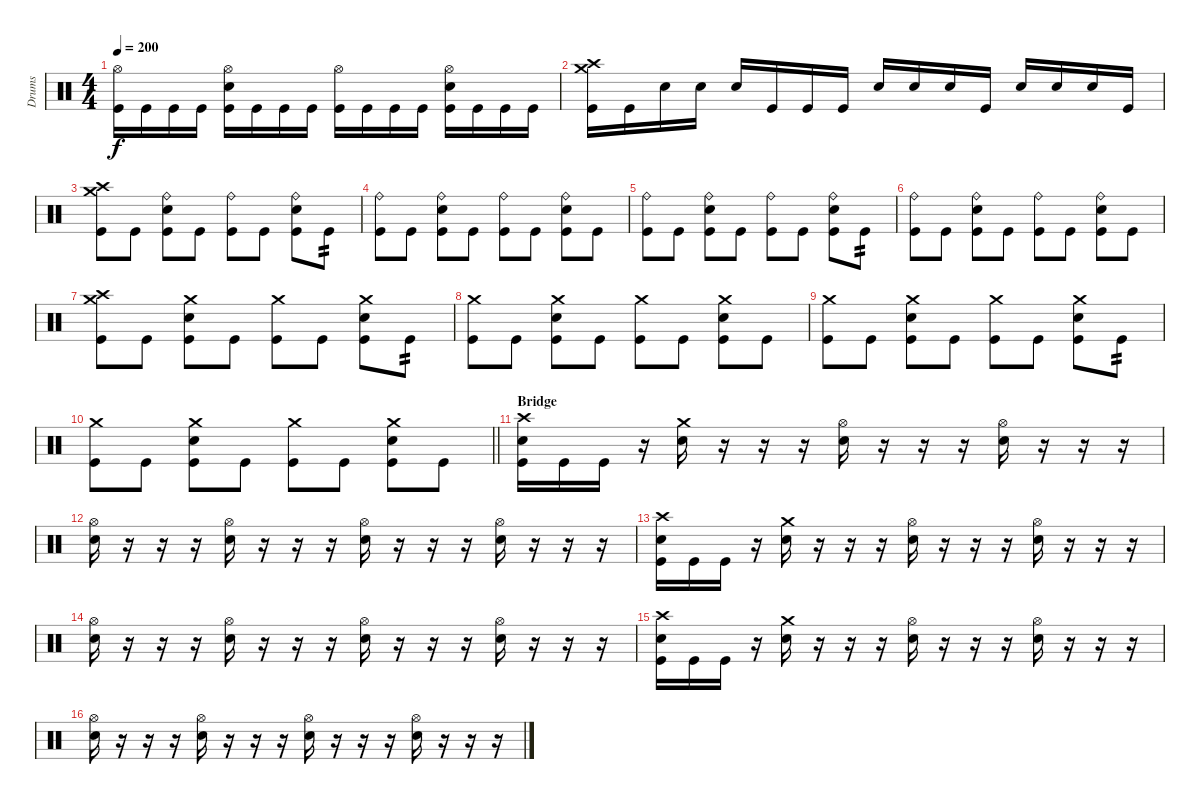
\track ("Drums" "Drums") {instrument percussion}
\staff {score}
\articulation defaults
\ts (4 4)
\tempo 200
\clef neutral
\ks c
("Hi-Hat (open)" "Kick (hit)").16{dy f} "Kick (hit)".16 "Kick (hit)".16 "Kick (hit)".16 ("Hi-Hat (open)" "Electric Snare (hit)" "Kick (hit)").16 "Kick (hit)".16 "Kick (hit)".16 "Kick (hit)".16 ("Hi-Hat (open)" "Kick (hit)").16 "Kick (hit)".16 "Kick (hit)".16 "Kick (hit)".16 ("Hi-Hat (open)" "Electric Snare (hit)" "Kick (hit)").16 "Kick (hit)".16 "Kick (hit)".16 "Kick (hit)".16 |
("Crash medium (hit)" "Crash high (hit)" "Kick (hit)").16 "Kick (hit)".16 "Electric Snare (hit)".16 "Electric Snare (hit)".16 "Electric Snare (hit)".16 "Kick (hit)".16 "Kick (hit)".16 "Kick (hit)".16 "Electric Snare (hit)".16 "Electric Snare (hit)".16 "Electric Snare (hit)".16 "Kick (hit)".16 "Electric Snare (hit)".16 "Electric Snare (hit)".16 "Electric Snare (hit)".16 "Kick (hit)".16 |
("Crash medium (hit)" "Crash high (hit)" "Kick (hit)").8 "Kick (hit)".8 ("Ride (bell)" "Electric Snare (hit)" "Kick (hit)").8 "Kick (hit)".8 ("Ride (bell)" "Kick (hit)").8 "Kick (hit)".8 ("Ride (bell)" "Electric Snare (hit)" "Kick (hit)").8 "Kick (hit)".8{tp 2} |
("Ride (bell)" "Kick (hit)").8 "Kick (hit)".8 ("Ride (bell)" "Electric Snare (hit)" "Kick (hit)").8 "Kick (hit)".8 ("Ride (bell)" "Kick (hit)").8 "Kick (hit)".8 ("Ride (bell)" "Electric Snare (hit)" "Kick (hit)").8 "Kick (hit)".8 |
("Ride (bell)" "Kick (hit)").8 "Kick (hit)".8 ("Ride (bell)" "Electric Snare (hit)" "Kick (hit)").8 "Kick (hit)".8 ("Ride (bell)" "Kick (hit)").8 "Kick (hit)".8 ("Ride (bell)" "Electric Snare (hit)" "Kick (hit)").8 "Kick (hit)".8{tp 2} |
("Ride (bell)" "Kick (hit)").8 "Kick (hit)".8 ("Ride (bell)" "Electric Snare (hit)" "Kick (hit)").8 "Kick (hit)".8 ("Ride (bell)" "Kick (hit)").8 "Kick (hit)".8 ("Ride (bell)" "Electric Snare (hit)" "Kick (hit)").8 "Kick (hit)".8 |
("Crash medium (hit)" "Crash high (hit)" "Kick (hit)").8 "Kick (hit)".8 ("Crash medium (hit)" "Electric Snare (hit)" "Kick (hit)").8 "Kick (hit)".8 ("Crash medium (hit)" "Kick (hit)").8 "Kick (hit)".8 ("Crash medium (hit)" "Electric Snare (hit)" "Kick (hit)").8 "Kick (hit)".8{tp 2} |
("Crash medium (hit)" "Kick (hit)").8 "Kick (hit)".8 ("Crash medium (hit)" "Electric Snare (hit)" "Kick (hit)").8 "Kick (hit)".8 ("Crash medium (hit)" "Kick (hit)").8 "Kick (hit)".8 ("Crash medium (hit)" "Electric Snare (hit)" "Kick (hit)").8 "Kick (hit)".8 |
("Crash medium (hit)" "Kick (hit)").8 "Kick (hit)".8 ("Crash medium (hit)" "Electric Snare (hit)" "Kick (hit)").8 "Kick (hit)".8 ("Crash medium (hit)" "Kick (hit)").8 "Kick (hit)".8 ("Crash medium (hit)" "Electric Snare (hit)" "Kick (hit)").8 "Kick (hit)".8{tp 2} |
\barLineRight lightlight
("Crash medium (hit)" "Kick (hit)").8 "Kick (hit)".8 ("Crash medium (hit)" "Electric Snare (hit)" "Kick (hit)").8 "Kick (hit)".8 ("Crash medium (hit)" "Kick (hit)").8 "Kick (hit)".8 ("Crash medium (hit)" "Electric Snare (hit)" "Kick (hit)").8 "Kick (hit)".8 |
\section ("" "Bridge")
("Crash high (hit)" "Electric Snare (hit)" "Kick (hit)").16 "Kick (hit)".16 "Kick (hit)".16 r.16 ("Crash medium (hit)" "Electric Snare (hit)").16 r.16 r.16 r.16 ("Hi-Hat (open)" "Electric Snare (hit)").16 r.16 r.16 r.16 ("Hi-Hat (open)" "Electric Snare (hit)").16 r.16 r.16 r.16 |
("Hi-Hat (open)" "Electric Snare (hit)").16 r.16 r.16 r.16 ("Hi-Hat (open)" "Electric Snare (hit)").16 r.16 r.16 r.16 ("Hi-Hat (open)" "Electric Snare (hit)").16 r.16 r.16 r.16 ("Hi-Hat (open)" "Electric Snare (hit)").16 r.16 r.16 r.16 |
("Crash high (hit)" "Electric Snare (hit)" "Kick (hit)").16 "Kick (hit)".16 "Kick (hit)".16 r.16 ("Crash medium (hit)" "Electric Snare (hit)").16 r.16 r.16 r.16 ("Hi-Hat (open)" "Electric Snare (hit)").16 r.16 r.16 r.16 ("Hi-Hat (open)" "Electric Snare (hit)").16 r.16 r.16 r.16 |
("Hi-Hat (open)" "Electric Snare (hit)").16 r.16 r.16 r.16 ("Hi-Hat (open)" "Electric Snare (hit)").16 r.16 r.16 r.16 ("Hi-Hat (open)" "Electric Snare (hit)").16 r.16 r.16 r.16 ("Hi-Hat (open)" "Electric Snare (hit)").16 r.16 r.16 r.16 |
("Crash high (hit)" "Electric Snare (hit)" "Kick (hit)").16 "Kick (hit)".16 "Kick (hit)".16 r.16 ("Crash medium (hit)" "Electric Snare (hit)").16 r.16 r.16 r.16 ("Hi-Hat (open)" "Electric Snare (hit)").16 r.16 r.16 r.16 ("Hi-Hat (open)" "Electric Snare (hit)").16 r.16 r.16 r.16 |
("Hi-Hat (open)" "Electric Snare (hit)").16 r.16 r.16 r.16 ("Hi-Hat (open)" "Electric Snare (hit)").16 r.16 r.16 r.16 ("Hi-Hat (open)" "Electric Snare (hit)").16 r.16 r.16 r.16 ("Hi-Hat (open)" "Electric Snare (hit)").16 r.16 r.16 r.16
